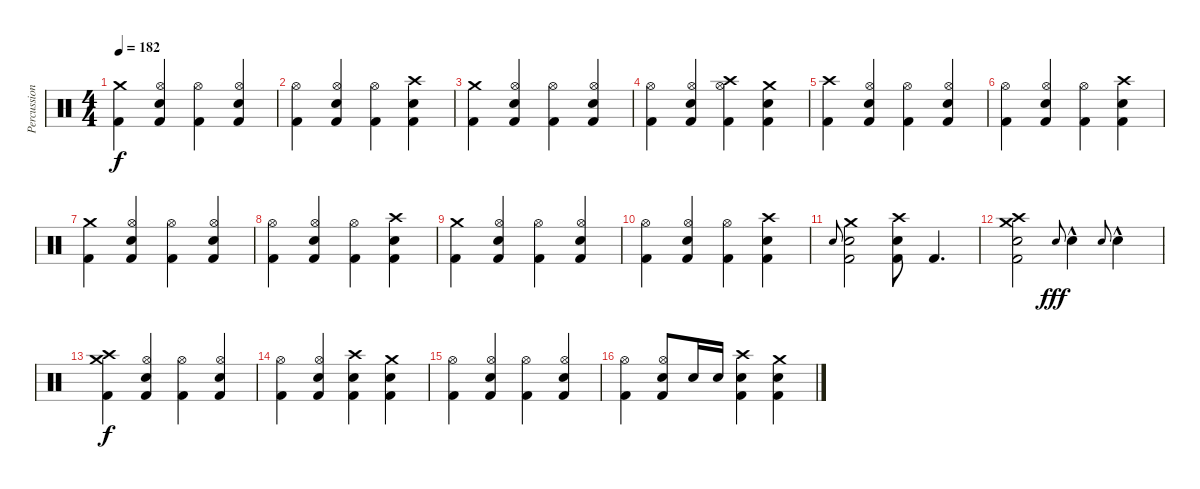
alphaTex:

\track ("Percussion" "Percussion") {instrument percussion}
\staff {score}
\articulation defaults
\ts (4 4)
\tempo 182
\clef neutral
\ks c
("Crash medium (hit)" "Kick (hit) 2").4{dy f} ("Hi-Hat (open)" "Electric Snare (hit)" "Kick (hit) 2").4 ("Hi-Hat (open)" "Kick (hit) 2").4 ("Hi-Hat (open)" "Electric Snare (hit)" "Kick (hit) 2").4 |
("Hi-Hat (open)" "Kick (hit) 2").4 ("Hi-Hat (open)" "Electric Snare (hit)" "Kick (hit) 2").4 ("Hi-Hat (open)" "Kick (hit) 2").4 ("Crash high (hit)" "Electric Snare (hit)" "Kick (hit) 2").4 |
("Crash medium (hit)" "Kick (hit) 2").4 ("Hi-Hat (open)" "Electric Snare (hit)" "Kick (hit) 2").4 ("Hi-Hat (open)" "Kick (hit) 2").4 ("Hi-Hat (open)" "Electric Snare (hit)" "Kick (hit) 2").4 |
("Hi-Hat (open)" "Kick (hit) 2").4 ("Hi-Hat (open)" "Electric Snare (hit)" "Kick (hit) 2").4 ("Crash high (hit)" "Hi-Hat (open)" "Kick (hit) 2").4 ("Crash medium (hit)" "Electric Snare (hit)" "Kick (hit) 2").4 |
("Crash high (hit)" "Kick (hit) 2").4 ("Hi-Hat (open)" "Electric Snare (hit)" "Kick (hit) 2").4 ("Hi-Hat (open)" "Kick (hit) 2").4 ("Hi-Hat (open)" "Electric Snare (hit)" "Kick (hit) 2").4 |
("Hi-Hat (open)" "Kick (hit) 2").4 ("Hi-Hat (open)" "Electric Snare (hit)" "Kick (hit) 2").4 ("Hi-Hat (open)" "Kick (hit) 2").4 ("Crash high (hit)" "Electric Snare (hit)" "Kick (hit) 2").4 |
("Crash medium (hit)" "Kick (hit) 2").4 ("Hi-Hat (open)" "Electric Snare (hit)" "Kick (hit) 2").4 ("Hi-Hat (open)" "Kick (hit) 2").4 ("Hi-Hat (open)" "Electric Snare (hit)" "Kick (hit) 2").4 |
("Hi-Hat (open)" "Kick (hit) 2").4 ("Hi-Hat (open)" "Electric Snare (hit)" "Kick (hit) 2").4 ("Hi-Hat (open)" "Kick (hit) 2").4 ("Crash high (hit)" "Electric Snare (hit)" "Kick (hit) 2").4 |
("Crash medium (hit)" "Kick (hit) 2").4 ("Hi-Hat (open)" "Electric Snare (hit)" "Kick (hit) 2").4 ("Hi-Hat (open)" "Kick (hit) 2").4 ("Hi-Hat (open)" "Electric Snare (hit)" "Kick (hit) 2").4 |
("Hi-Hat (open)" "Kick (hit) 2").4 ("Hi-Hat (open)" "Electric Snare (hit)" "Kick (hit) 2").4 ("Hi-Hat (open)" "Kick (hit) 2").4 ("Crash high (hit)" "Electric Snare (hit)" "Kick (hit) 2").4 |
"Electric Snare (hit)".8{gr onbeat} ("Crash medium (hit)" "Electric Snare (hit)" "Kick (hit) 2").2 ("Crash high (hit)" "Electric Snare (hit)" "Kick (hit) 2").8 "Kick (hit) 2".4{d} |
("Crash medium (hit)" "Crash high (hit)" "Electric Snare (hit)" "Kick (hit) 2").2 "Snare (hit) 2".8{gr onbeat dy fff} "Snare (hit) 2"{hac}.4 "Snare (hit) 2".8{gr onbeat} "Snare (hit) 2"{hac}.4 |
("Crash medium (hit)" "Crash high (hit)" "Kick (hit) 2").4{dy f} ("Hi-Hat (open)" "Electric Snare (hit)" "Kick (hit) 2").4 ("Hi-Hat (open)" "Kick (hit) 2").4 ("Hi-Hat (open)" "Electric Snare (hit)" "Kick (hit) 2").4 |
("Hi-Hat (open)" "Kick (hit) 2").4 ("Hi-Hat (open)" "Electric Snare (hit)" "Kick (hit) 2").4 ("Crash high (hit)" "Electric Snare (hit)" "Kick (hit) 2").4 ("Crash medium (hit)" "Electric Snare (hit)" "Kick (hit) 2").4 |
("Hi-Hat (open)" "Kick (hit) 2").4 ("Hi-Hat (open)" "Electric Snare (hit)" "Kick (hit) 2").4 ("Hi-Hat (open)" "Kick (hit) 2").4 ("Hi-Hat (open)" "Electric Snare (hit)" "Kick (hit) 2").4 |
("Hi-Hat (open)" "Kick (hit) 2").4 ("Hi-Hat (open)" "Electric Snare (hit)" "Kick (hit) 2").8 "Electric Snare (hit)".16 "Electric Snare (hit)".16 ("Crash high (hit)" "Electric Snare (hit)" "Kick (hit) 2").4 ("Crash medium (hit)" "Electric Snare (hit)" "Kick (hit) 2").4
